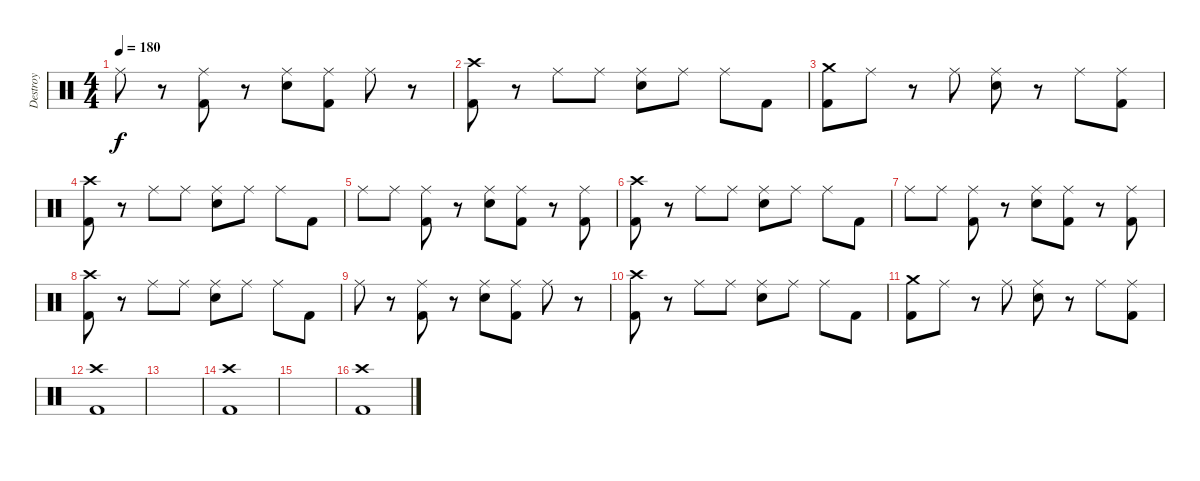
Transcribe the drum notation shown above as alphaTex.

\track ("Destroy" "Destroy") {instrument percussion}
\staff {score}
\articulation defaults
\ts (4 4)
\tempo 180
\clef neutral
\ks c "Ride (middle)".8{dy f}
r.8 ("Ride (middle)" "Kick (hit) 2").8 r.8 ("Ride (middle)" "Electric Snare (hit)").8 ("Ride (middle)" "Kick (hit) 2").8 "Ride (middle)".8 r.8 |
("Crash high (hit)" "Kick (hit) 2").8 r.8 "Ride (middle)".8 "Ride (middle)".8 ("Ride (middle)" "Electric Snare (hit)").8 "Ride (middle)".8 "Ride (middle)".8 "Kick (hit) 2".8 |
("Crash medium (hit)" "Kick (hit) 2").8 "Ride (middle)".8 r.8 "Ride (middle)".8 ("Ride (middle)" "Electric Snare (hit)").8 r.8 "Ride (middle)".8 ("Ride (middle)" "Kick (hit) 2").8 |
("Crash high (hit)" "Kick (hit) 2").8 r.8 "Ride (middle)".8 "Ride (middle)".8 ("Ride (middle)" "Electric Snare (hit)").8 "Ride (middle)".8 "Ride (middle)".8 "Kick (hit) 2".8 |
"Ride (middle)".8 "Ride (middle)".8 ("Ride (middle)" "Kick (hit) 2").8 r.8 ("Ride (middle)" "Electric Snare (hit)").8 ("Ride (middle)" "Kick (hit) 2").8 r.8 ("Ride (middle)" "Kick (hit) 2").8 |
("Crash high (hit)" "Kick (hit) 2").8 r.8 "Ride (middle)".8 "Ride (middle)".8 ("Ride (middle)" "Electric Snare (hit)").8 "Ride (middle)".8 "Ride (middle)".8 "Kick (hit) 2".8 |
"Ride (middle)".8 "Ride (middle)".8 ("Ride (middle)" "Kick (hit) 2").8 r.8 ("Ride (middle)" "Electric Snare (hit)").8 ("Ride (middle)" "Kick (hit) 2").8 r.8 ("Ride (middle)" "Kick (hit) 2").8 |
("Crash high (hit)" "Kick (hit) 2").8 r.8 "Ride (middle)".8 "Ride (middle)".8 ("Ride (middle)" "Electric Snare (hit)").8 "Ride (middle)".8 "Ride (middle)".8 "Kick (hit) 2".8 |
"Ride (middle)".8 r.8 ("Ride (middle)" "Kick (hit) 2").8 r.8 ("Ride (middle)" "Electric Snare (hit)").8 ("Ride (middle)" "Kick (hit) 2").8 "Ride (middle)".8 r.8 |
("Crash high (hit)" "Kick (hit) 2").8 r.8 "Ride (middle)".8 "Ride (middle)".8 ("Ride (middle)" "Electric Snare (hit)").8 "Ride (middle)".8 "Ride (middle)".8 "Kick (hit) 2".8 |
("Crash medium (hit)" "Kick (hit) 2").8 "Ride (middle)".8 r.8 "Ride (middle)".8 ("Ride (middle)" "Electric Snare (hit)").8 r.8 "Ride (middle)".8 ("Ride (middle)" "Kick (hit) 2").8 |
("Crash high (hit)" "Kick (hit) 2").1 |
|
("Crash high (hit)" "Kick (hit) 2").1 |
|
("Crash high (hit)" "Kick (hit) 2").1
